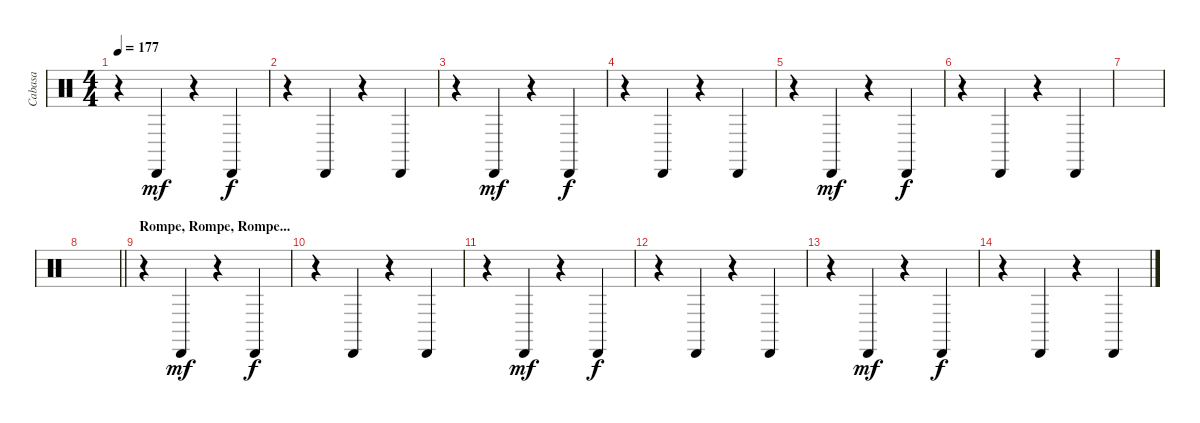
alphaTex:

\track ("Cabasa" "Cabasa") {instrument percussion}
\staff {score}
\articulation defaults
\ts (4 4)
\tempo 177
\clef neutral
\ks c
r.4{dy f} "Cabasa (hit)".4{dy mf} r.4 "Cabasa (hit)".4{dy f} |
r.4 "Cabasa (hit)".4 r.4 "Cabasa (hit)".4 |
r.4 "Cabasa (hit)".4{dy mf} r.4 "Cabasa (hit)".4{dy f} |
r.4 "Cabasa (hit)".4 r.4 "Cabasa (hit)".4 |
r.4 "Cabasa (hit)".4{dy mf} r.4 "Cabasa (hit)".4{dy f} |
r.4 "Cabasa (hit)".4 r.4 "Cabasa (hit)".4 |
|
\barLineRight lightlight
|
\section ("" "Rompe, Rompe, Rompe...")
r.4 "Cabasa (hit)".4{dy mf} r.4 "Cabasa (hit)".4{dy f} |
r.4 "Cabasa (hit)".4 r.4 "Cabasa (hit)".4 |
r.4 "Cabasa (hit)".4{dy mf} r.4 "Cabasa (hit)".4{dy f} |
r.4 "Cabasa (hit)".4 r.4 "Cabasa (hit)".4 |
r.4 "Cabasa (hit)".4{dy mf} r.4 "Cabasa (hit)".4{dy f} |
r.4 "Cabasa (hit)".4 r.4 "Cabasa (hit)".4
